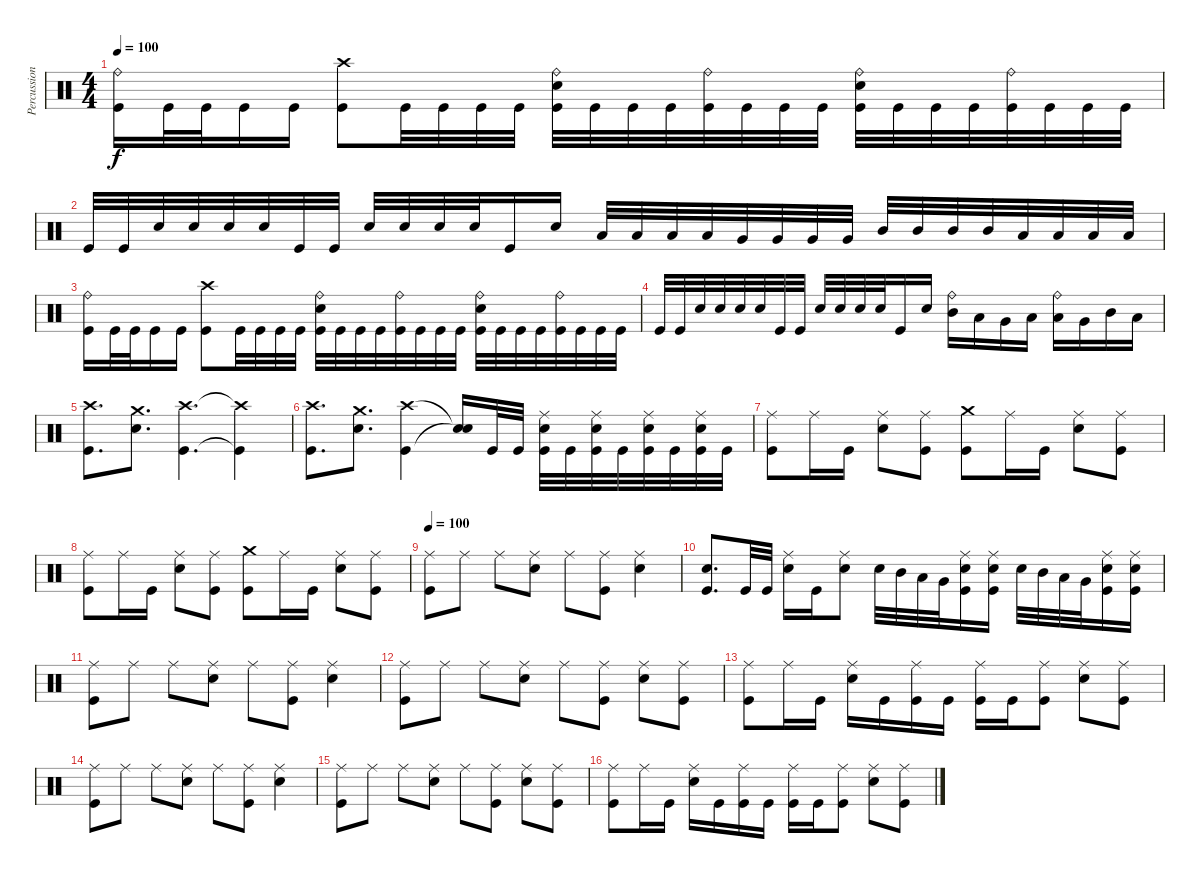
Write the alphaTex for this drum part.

\track ("Percussion" "Percussion") {instrument percussion}
\staff {score}
\articulation defaults
\ts (4 4)
\tempo 100
\clef neutral
\ks c
("Ride (bell)" "Kick (hit)").16{dy f} "Kick (hit)".32 "Kick (hit)".32 "Kick (hit)".16 "Kick (hit)".16 ("Crash high (hit)" "Kick (hit)").8 "Kick (hit)".32 "Kick (hit)".32 "Kick (hit)".32 "Kick (hit)".32 ("Ride (bell)" "Electric Snare (hit)" "Kick (hit)").32 "Kick (hit)".32 "Kick (hit)".32 "Kick (hit)".32 ("Ride (bell)" "Kick (hit)").32 "Kick (hit)".32 "Kick (hit)".32 "Kick (hit)".32 ("Ride (bell)" "Electric Snare (hit)" "Kick (hit)").32 "Kick (hit)".32 "Kick (hit)".32 "Kick (hit)".32 ("Ride (bell)" "Kick (hit)").32 "Kick (hit)".32 "Kick (hit)".32 "Kick (hit)".32 |
"Kick (hit)".32 "Kick (hit)".32 "Electric Snare (hit)".32 "Electric Snare (hit)".32 "Electric Snare (hit)".32 "Electric Snare (hit)".32 "Kick (hit)".32 "Kick (hit)".32 "Electric Snare (hit)".32 "Electric Snare (hit)".32 "Electric Snare (hit)".32 "Electric Snare (hit)".32 "Kick (hit)".16 "Electric Snare (hit)".16 "Low Tom (hit)".32 "Low Tom (hit)".32 "Low Tom (hit)".32 "Low Tom (hit)".32 "Very Low Tom (hit)".32 "Very Low Tom (hit)".32 "Very Low Tom (hit)".32 "Very Low Tom (hit)".32 "Mid Tom (hit)".32 "Mid Tom (hit)".32 "Mid Tom (hit)".32 "Mid Tom (hit)".32 "Low Floor Tom (hit)".32 "Low Floor Tom (hit)".32 "Low Floor Tom (hit)".32 "Low Floor Tom (hit)".32 |
("Ride (bell)" "Kick (hit)").16 "Kick (hit)".32 "Kick (hit)".32 "Kick (hit)".16 "Kick (hit)".16 ("Crash high (hit)" "Kick (hit)").8 "Kick (hit)".32 "Kick (hit)".32 "Kick (hit)".32 "Kick (hit)".32 ("Ride (bell)" "Electric Snare (hit)" "Kick (hit)").32 "Kick (hit)".32 "Kick (hit)".32 "Kick (hit)".32 ("Ride (bell)" "Kick (hit)").32 "Kick (hit)".32 "Kick (hit)".32 "Kick (hit)".32 ("Ride (bell)" "Electric Snare (hit)" "Kick (hit)").32 "Kick (hit)".32 "Kick (hit)".32 "Kick (hit)".32 ("Ride (bell)" "Kick (hit)").32 "Kick (hit)".32 "Kick (hit)".32 "Kick (hit)".32 |
"Kick (hit)".32 "Kick (hit)".32 "Electric Snare (hit)".32 "Electric Snare (hit)".32 "Electric Snare (hit)".32 "Electric Snare (hit)".32 "Kick (hit)".32 "Kick (hit)".32 "Electric Snare (hit)".32 "Electric Snare (hit)".32 "Electric Snare (hit)".32 "Electric Snare (hit)".32 "Kick (hit)".16 "Electric Snare (hit)".16 ("Ride (bell)" "Mid Tom (hit)").16 "Low Tom (hit)".16 "Very Low Tom (hit)".16 "Low Floor Tom (hit)".16 ("Ride (bell)" "Low Tom (hit)").16 "Very Low Tom (hit)".16 "Mid Tom (hit)".16 "Low Floor Tom (hit)".16 |
("Crash high (hit)" "Kick (hit)").8{d} ("Crash medium (hit)" "Electric Snare (hit)").8{d} ("Crash high (hit)" "Kick (hit)").4{d} ("Crash high (hit)"{t} "Kick (hit)"{t}).4 |
("Crash high (hit)" "Kick (hit)").8{d} ("Crash medium (hit)" "Electric Snare (hit)").8{d} ("Crash high (hit)" "Kick (hit)").4 ("Snare (hit)"{t} "Snare (hit)"{t}).16 "Kick (hit)".32 "Kick (hit)".32 ("Ride (middle)" "Electric Snare (hit)" "Kick (hit)").32 "Kick (hit)".32 ("Ride (middle)" "Electric Snare (hit)" "Kick (hit)").32 "Kick (hit)".32 ("Ride (middle)" "Electric Snare (hit)" "Kick (hit)").32 "Kick (hit)".32 ("Ride (middle)" "Electric Snare (hit)" "Kick (hit)").32 "Kick (hit)".32 |
("Ride (middle)" "Kick (hit)").8 "Ride (middle)".16 "Kick (hit)".16 ("Ride (middle)" "Electric Snare (hit)").8 ("Ride (middle)" "Kick (hit)").8 ("Crash medium (hit)" "Kick (hit)").8 "Ride (middle)".16 "Kick (hit)".16 ("Ride (middle)" "Electric Snare (hit)").8 ("Ride (middle)" "Kick (hit)").8 |
("Ride (middle)" "Kick (hit)").8 "Ride (middle)".16 "Kick (hit)".16 ("Ride (middle)" "Electric Snare (hit)").8 ("Ride (middle)" "Kick (hit)").8 ("Crash medium (hit)" "Kick (hit)").8 "Ride (middle)".16 "Kick (hit)".16 ("Ride (middle)" "Electric Snare (hit)").8 ("Ride (middle)" "Kick (hit)").8 |
\tempo 100
("Ride (middle)" "Kick (hit)").8 "Ride (middle)".8 "Ride (middle)".8 ("Ride (middle)" "Electric Snare (hit)").8 "Ride (middle)".8 ("Ride (middle)" "Kick (hit)").8 ("Ride (middle)" "Electric Snare (hit)").4 |
("Snare (hit)" "Kick (hit)").8{d} "Kick (hit)".32 "Kick (hit)".32 ("Ride (middle)" "Electric Snare (hit)").16 "Kick (hit)".16 ("Ride (middle)" "Electric Snare (hit)").8 "Electric Snare (hit)".32 "Mid Tom (hit)".32 "Low Tom (hit)".32 "Very Low Tom (hit)".32 ("Ride (middle)" "Electric Snare (hit)" "Kick (hit)").16 ("Ride (middle)" "Electric Snare (hit)" "Kick (hit)").16 "Electric Snare (hit)".32 "Mid Tom (hit)".32 "Low Tom (hit)".32 "Very Low Tom (hit)".32 ("Ride (middle)" "Electric Snare (hit)" "Kick (hit)").16 ("Ride (middle)" "Electric Snare (hit)" "Kick (hit)").16 |
("Ride (middle)" "Kick (hit)").8 "Ride (middle)".8 "Ride (middle)".8 ("Ride (middle)" "Electric Snare (hit)").8 "Ride (middle)".8 ("Ride (middle)" "Kick (hit)").8 ("Ride (middle)" "Electric Snare (hit)").4 |
("Ride (middle)" "Kick (hit)").8 "Ride (middle)".8 "Ride (middle)".8 ("Ride (middle)" "Electric Snare (hit)").8 "Ride (middle)".8 ("Ride (middle)" "Kick (hit)").8 ("Ride (middle)" "Electric Snare (hit)").8 ("Ride (middle)" "Kick (hit)").8 |
("Ride (middle)" "Kick (hit)").8 "Ride (middle)".16 "Kick (hit)".16 ("Ride (middle)" "Electric Snare (hit)").16 "Kick (hit)".16 ("Ride (middle)" "Kick (hit)").16 "Kick (hit)".16 ("Ride (middle)" "Kick (hit)").16 "Kick (hit)".16 ("Ride (middle)" "Kick (hit)").8 ("Ride (middle)" "Electric Snare (hit)").8 ("Ride (middle)" "Kick (hit)").8 |
("Ride (middle)" "Kick (hit)").8 "Ride (middle)".8 "Ride (middle)".8 ("Ride (middle)" "Electric Snare (hit)").8 "Ride (middle)".8 ("Ride (middle)" "Kick (hit)").8 ("Ride (middle)" "Electric Snare (hit)").4 |
("Ride (middle)" "Kick (hit)").8 "Ride (middle)".8 "Ride (middle)".8 ("Ride (middle)" "Electric Snare (hit)").8 "Ride (middle)".8 ("Ride (middle)" "Kick (hit)").8 ("Ride (middle)" "Electric Snare (hit)").8 ("Ride (middle)" "Kick (hit)").8 |
("Ride (middle)" "Kick (hit)").8 "Ride (middle)".16 "Kick (hit)".16 ("Ride (middle)" "Electric Snare (hit)").16 "Kick (hit)".16 ("Ride (middle)" "Kick (hit)").16 "Kick (hit)".16 ("Ride (middle)" "Kick (hit)").16 "Kick (hit)".16 ("Ride (middle)" "Kick (hit)").8 ("Ride (middle)" "Electric Snare (hit)").8 ("Ride (middle)" "Kick (hit)").8
